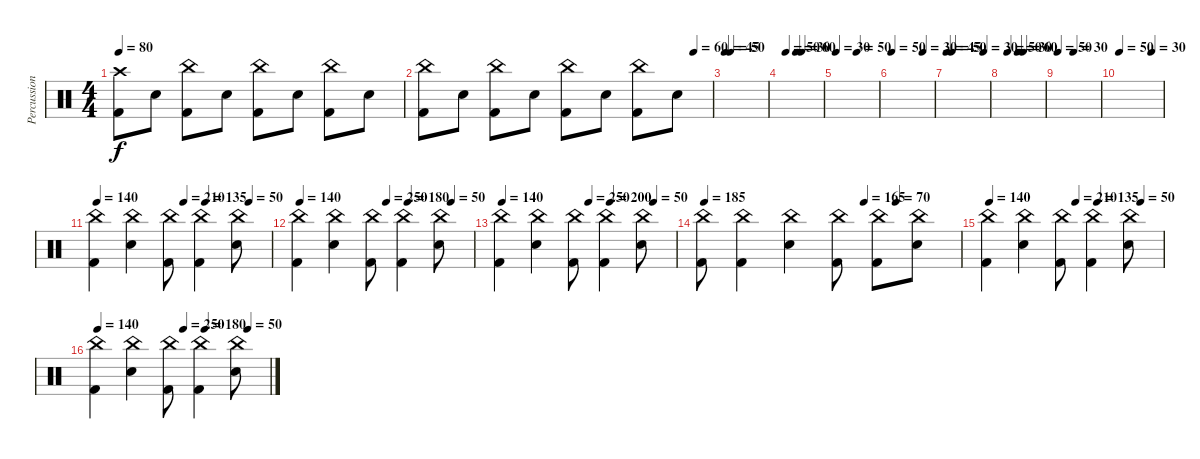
\track ("Percussion" "Percussion") {instrument percussion}
\staff {score}
\articulation defaults
\ts (4 4)
\tempo 80
\clef neutral
\ks c
("Crash high (hit)" "Kick (hit) 2").8{dy f} "Snare (hit) 2".8 ("China (hit)" "Kick (hit) 2").8 "Snare (hit) 2".8 ("China (hit)" "Kick (hit) 2").8 "Snare (hit) 2".8 ("China (hit)" "Kick (hit) 2").8 "Snare (hit) 2".8 |
\tempo (60 0.9375)
("China (hit)" "Kick (hit) 2").8 "Snare (hit) 2".8 ("China (hit)" "Kick (hit) 2").8 "Snare (hit) 2".8 ("China (hit)" "Kick (hit) 2").8 "Snare (hit) 2".8 ("China (hit)" "Kick (hit) 2").8 "Snare (hit) 2".8 |
\tempo 30
\tempo (50 0.125)
\tempo 45
|
\tempo (50 0.125)
\tempo (30 0.375)
\tempo (60 0.5)
|
\tempo 30
\tempo (50 0.5)
|
\tempo 50
\tempo (30 0.75)
|
\tempo 15
\tempo (50 0.125)
\tempo (30 0.875)
\tempo 45
|
\tempo (50 0.125)
\tempo (30 0.375)
\tempo (60 0.5)
|
\tempo 50
\tempo (30 0.375)
|
\tempo 50
\tempo (30 0.75)
|
\tempo 140
\tempo (210 0.5)
\tempo (400 0.625)
\tempo (50 0.875)
\tempo (135 0.625)
("China (hit)" "Kick (hit) 2").4 ("China (hit)" "Snare (hit) 2").4 ("China (hit)" "Kick (hit) 2").8 ("China (hit)" "Kick (hit) 2").4 ("China (hit)" "Snare (hit) 2").8 |
\tempo 140
\tempo (250 0.5)
\tempo (180 0.625)
\tempo (50 0.875)
("China (hit)" "Kick (hit) 2").4 ("China (hit)" "Snare (hit) 2").4 ("China (hit)" "Kick (hit) 2").8 ("China (hit)" "Kick (hit) 2").4 ("China (hit)" "Snare (hit) 2").8 |
\tempo 140
\tempo (250 0.5)
\tempo (200 0.625)
\tempo (50 0.875)
("China (hit)" "Kick (hit) 2").4 ("China (hit)" "Snare (hit) 2").4 ("China (hit)" "Kick (hit) 2").8 ("China (hit)" "Kick (hit) 2").4 ("China (hit)" "Snare (hit) 2").8 |
\tempo 185
\tempo (165 0.625)
\tempo (70 0.75)
("China (hit)" "Kick (hit) 2").8 ("China (hit)" "Kick (hit) 2").4 ("China (hit)" "Snare (hit) 2").4 ("China (hit)" "Kick (hit) 2").8 ("China (hit)" "Kick (hit) 2").8 ("China (hit)" "Snare (hit) 2").8 |
\tempo 140
\tempo (210 0.5)
\tempo (400 0.625)
\tempo (50 0.875)
\tempo (135 0.625)
("China (hit)" "Kick (hit) 2").4 ("China (hit)" "Snare (hit) 2").4 ("China (hit)" "Kick (hit) 2").8 ("China (hit)" "Kick (hit) 2").4 ("China (hit)" "Snare (hit) 2").8 |
\tempo 140
\tempo (250 0.5)
\tempo (180 0.625)
\tempo (50 0.875)
("China (hit)" "Kick (hit) 2").4 ("China (hit)" "Snare (hit) 2").4 ("China (hit)" "Kick (hit) 2").8 ("China (hit)" "Kick (hit) 2").4 ("China (hit)" "Snare (hit) 2").8
